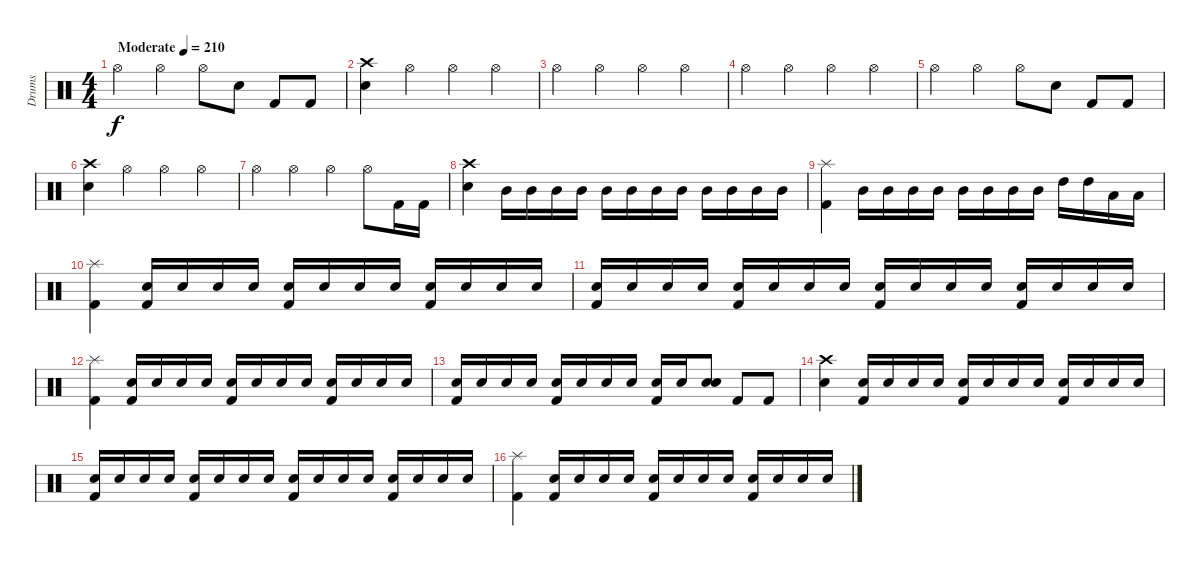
\track ("Drums" "Drums") {instrument percussion}
\staff {score}
\articulation defaults
\ts (4 4)
\tempo (210 "Moderate")
\clef neutral
\ks c "Hi-Hat (open)".4{dy f} "Hi-Hat (open)".4 "Hi-Hat (open)".8 "Snare (hit) 2".8 "Kick (hit) 2".8 "Kick (hit) 2".8
|
("Crash high (hit)" "Snare (hit) 2").4 "Hi-Hat (open)".4 "Hi-Hat (open)".4 "Hi-Hat (open)".4 |
"Hi-Hat (open)".4 "Hi-Hat (open)".4 "Hi-Hat (open)".4 "Hi-Hat (open)".4 |
"Hi-Hat (open)".4 "Hi-Hat (open)".4 "Hi-Hat (open)".4 "Hi-Hat (open)".4 |
"Hi-Hat (open)".4 "Hi-Hat (open)".4 "Hi-Hat (open)".8 "Snare (hit) 2".8 "Kick (hit) 2".8 "Kick (hit) 2".8 |
("Crash high (hit)" "Snare (hit) 2").4 "Hi-Hat (open)".4 "Hi-Hat (open)".4 "Hi-Hat (open)".4 |
"Hi-Hat (open)".4 "Hi-Hat (open)".4 "Hi-Hat (open)".4 "Hi-Hat (open)".8 "Kick (hit) 2".16 "Kick (hit) 2".16 |
("Crash high (hit)" "Snare (hit) 2").4 "Mid Tom (hit)".16 "Mid Tom (hit)".16 "Mid Tom (hit)".16 "Mid Tom (hit)".16 "Mid Tom (hit)".16 "Mid Tom (hit)".16 "Mid Tom (hit)".16 "Mid Tom (hit)".16 "Mid Tom (hit)".16 "Mid Tom (hit)".16 "Mid Tom (hit)".16 "Mid Tom (hit)".16 |
("Splash (hit)" "Kick (hit) 2").4 "Mid Tom (hit)".16 "Mid Tom (hit)".16 "Mid Tom (hit)".16 "Mid Tom (hit)".16 "Mid Tom (hit)".16 "Mid Tom (hit)".16 "Mid Tom (hit)".16 "Mid Tom (hit)".16 "High Tom (hit)".16 "High Tom (hit)".16 "Low Tom (hit)".16 "Low Tom (hit)".16 |
("Splash (hit)" "Kick (hit) 2").4 ("Snare (hit) 2" "Kick (hit) 2").16 "Snare (hit) 2".16 "Snare (hit) 2".16 "Snare (hit) 2".16 ("Snare (hit) 2" "Kick (hit) 2").16 "Snare (hit) 2".16 "Snare (hit) 2".16 "Snare (hit) 2".16 ("Snare (hit) 2" "Kick (hit) 2").16 "Snare (hit) 2".16 "Snare (hit) 2".16 "Snare (hit) 2".16 |
("Snare (hit) 2" "Kick (hit) 2").16 "Snare (hit) 2".16 "Snare (hit) 2".16 "Snare (hit) 2".16 ("Snare (hit) 2" "Kick (hit) 2").16 "Snare (hit) 2".16 "Snare (hit) 2".16 "Snare (hit) 2".16 ("Snare (hit) 2" "Kick (hit) 2").16 "Snare (hit) 2".16 "Snare (hit) 2".16 "Snare (hit) 2".16 ("Snare (hit) 2" "Kick (hit) 2").16 "Snare (hit) 2".16 "Snare (hit) 2".16 "Snare (hit) 2".16 |
("Splash (hit)" "Kick (hit) 2").4 ("Snare (hit) 2" "Kick (hit) 2").16 "Snare (hit) 2".16 "Snare (hit) 2".16 "Snare (hit) 2".16 ("Snare (hit) 2" "Kick (hit) 2").16 "Snare (hit) 2".16 "Snare (hit) 2".16 "Snare (hit) 2".16 ("Snare (hit) 2" "Kick (hit) 2").16 "Snare (hit) 2".16 "Snare (hit) 2".16 "Snare (hit) 2".16 |
("Snare (hit) 2" "Kick (hit) 2").16 "Snare (hit) 2".16 "Snare (hit) 2".16 "Snare (hit) 2".16 ("Snare (hit) 2" "Kick (hit) 2").16 "Snare (hit) 2".16 "Snare (hit) 2".16 "Snare (hit) 2".16 ("Snare (hit) 2" "Kick (hit) 2").16 "Snare (hit) 2".16 ("Snare (hit) 2" "Snare (hit) 2").8 "Kick (hit) 2".8 "Kick (hit) 2".8 |
("Crash high (hit)" "Snare (hit) 2").4 ("Snare (hit) 2" "Kick (hit) 2").16 "Snare (hit) 2".16 "Snare (hit) 2".16 "Snare (hit) 2".16 ("Snare (hit) 2" "Kick (hit) 2").16 "Snare (hit) 2".16 "Snare (hit) 2".16 "Snare (hit) 2".16 ("Snare (hit) 2" "Kick (hit) 2").16 "Snare (hit) 2".16 "Snare (hit) 2".16 "Snare (hit) 2".16 |
("Snare (hit) 2" "Kick (hit) 2").16 "Snare (hit) 2".16 "Snare (hit) 2".16 "Snare (hit) 2".16 ("Snare (hit) 2" "Kick (hit) 2").16 "Snare (hit) 2".16 "Snare (hit) 2".16 "Snare (hit) 2".16 ("Snare (hit) 2" "Kick (hit) 2").16 "Snare (hit) 2".16 "Snare (hit) 2".16 "Snare (hit) 2".16 ("Snare (hit) 2" "Kick (hit) 2").16 "Snare (hit) 2".16 "Snare (hit) 2".16 "Snare (hit) 2".16 |
("Splash (hit)" "Kick (hit) 2").4 ("Snare (hit) 2" "Kick (hit) 2").16 "Snare (hit) 2".16 "Snare (hit) 2".16 "Snare (hit) 2".16 ("Snare (hit) 2" "Kick (hit) 2").16 "Snare (hit) 2".16 "Snare (hit) 2".16 "Snare (hit) 2".16 ("Snare (hit) 2" "Kick (hit) 2").16 "Snare (hit) 2".16 "Snare (hit) 2".16 "Snare (hit) 2".16
